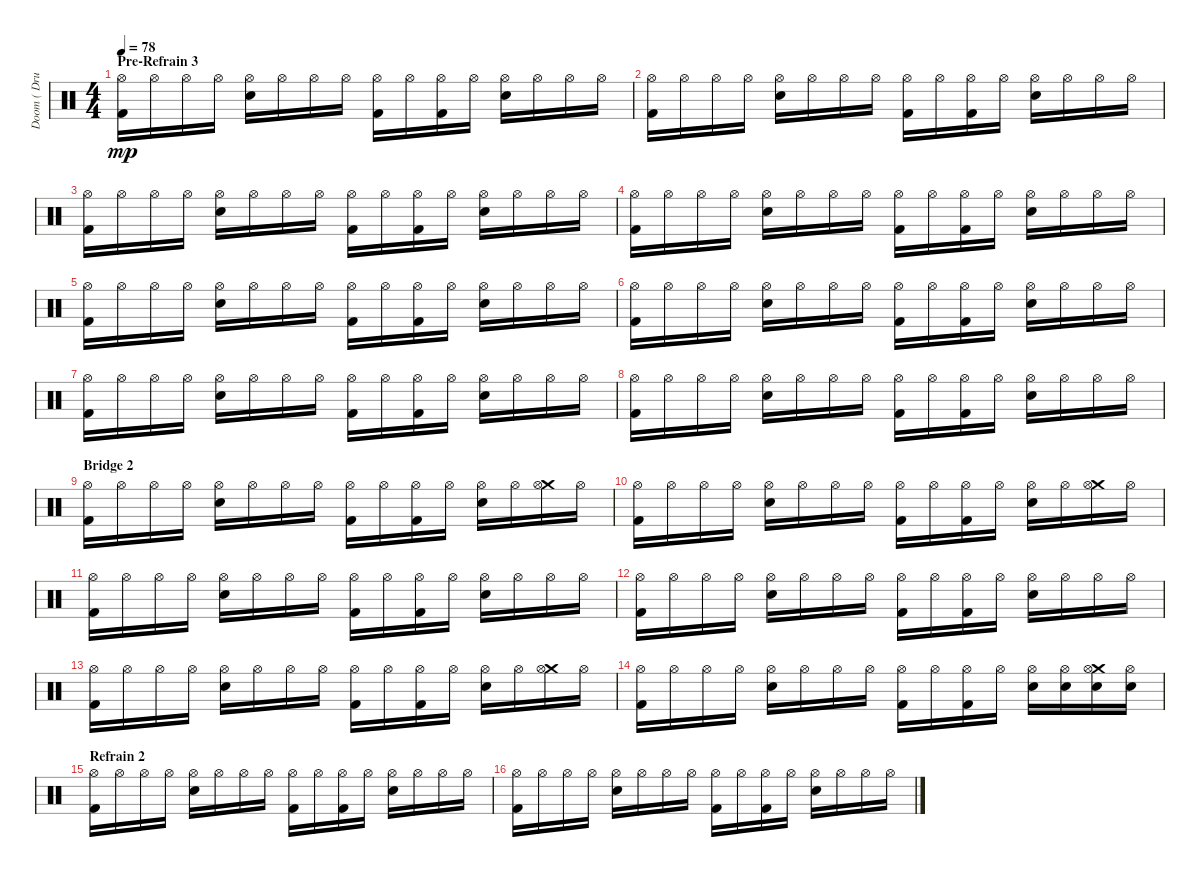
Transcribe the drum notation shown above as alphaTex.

\track ("Doom ( Drums )" "Doom ( Dru") {instrument percussion}
\staff {score}
\articulation defaults
\ts (4 4)
\section ("" "Pre-Refrain 3")
\tempo 78
\clef neutral
\ks c
("Kick (hit) 2" "Hi-Hat (open)").16{dy mp} "Hi-Hat (open)".16 "Hi-Hat (open)".16 "Hi-Hat (open)".16 ("Electric Snare (hit)" "Hi-Hat (open)").16 "Hi-Hat (open)".16 "Hi-Hat (open)".16 "Hi-Hat (open)".16 ("Kick (hit) 2" "Hi-Hat (open)").16 "Hi-Hat (open)".16 ("Kick (hit) 2" "Hi-Hat (open)").16 "Hi-Hat (open)".16 ("Electric Snare (hit)" "Hi-Hat (open)").16 "Hi-Hat (open)".16 "Hi-Hat (open)".16 "Hi-Hat (open)".16 |
("Kick (hit) 2" "Hi-Hat (open)").16 "Hi-Hat (open)".16 "Hi-Hat (open)".16 "Hi-Hat (open)".16 ("Electric Snare (hit)" "Hi-Hat (open)").16 "Hi-Hat (open)".16 "Hi-Hat (open)".16 "Hi-Hat (open)".16 ("Kick (hit) 2" "Hi-Hat (open)").16 "Hi-Hat (open)".16 ("Kick (hit) 2" "Hi-Hat (open)").16 "Hi-Hat (open)".16 ("Electric Snare (hit)" "Hi-Hat (open)").16 "Hi-Hat (open)".16 "Hi-Hat (open)".16 "Hi-Hat (open)".16 |
("Kick (hit) 2" "Hi-Hat (open)").16 "Hi-Hat (open)".16 "Hi-Hat (open)".16 "Hi-Hat (open)".16 ("Electric Snare (hit)" "Hi-Hat (open)").16 "Hi-Hat (open)".16 "Hi-Hat (open)".16 "Hi-Hat (open)".16 ("Kick (hit) 2" "Hi-Hat (open)").16 "Hi-Hat (open)".16 ("Kick (hit) 2" "Hi-Hat (open)").16 "Hi-Hat (open)".16 ("Electric Snare (hit)" "Hi-Hat (open)").16 "Hi-Hat (open)".16 "Hi-Hat (open)".16 "Hi-Hat (open)".16 |
("Kick (hit) 2" "Hi-Hat (open)").16 "Hi-Hat (open)".16 "Hi-Hat (open)".16 "Hi-Hat (open)".16 ("Electric Snare (hit)" "Hi-Hat (open)").16 "Hi-Hat (open)".16 "Hi-Hat (open)".16 "Hi-Hat (open)".16 ("Kick (hit) 2" "Hi-Hat (open)").16 "Hi-Hat (open)".16 ("Kick (hit) 2" "Hi-Hat (open)").16 "Hi-Hat (open)".16 ("Electric Snare (hit)" "Hi-Hat (open)").16 "Hi-Hat (open)".16 "Hi-Hat (open)".16 "Hi-Hat (open)".16 |
("Kick (hit) 2" "Hi-Hat (open)").16 "Hi-Hat (open)".16 "Hi-Hat (open)".16 "Hi-Hat (open)".16 ("Electric Snare (hit)" "Hi-Hat (open)").16 "Hi-Hat (open)".16 "Hi-Hat (open)".16 "Hi-Hat (open)".16 ("Kick (hit) 2" "Hi-Hat (open)").16 "Hi-Hat (open)".16 ("Kick (hit) 2" "Hi-Hat (open)").16 "Hi-Hat (open)".16 ("Electric Snare (hit)" "Hi-Hat (open)").16 "Hi-Hat (open)".16 "Hi-Hat (open)".16 "Hi-Hat (open)".16 |
("Kick (hit) 2" "Hi-Hat (open)").16 "Hi-Hat (open)".16 "Hi-Hat (open)".16 "Hi-Hat (open)".16 ("Electric Snare (hit)" "Hi-Hat (open)").16 "Hi-Hat (open)".16 "Hi-Hat (open)".16 "Hi-Hat (open)".16 ("Kick (hit) 2" "Hi-Hat (open)").16 "Hi-Hat (open)".16 ("Kick (hit) 2" "Hi-Hat (open)").16 "Hi-Hat (open)".16 ("Electric Snare (hit)" "Hi-Hat (open)").16 "Hi-Hat (open)".16 "Hi-Hat (open)".16 "Hi-Hat (open)".16 |
("Kick (hit) 2" "Hi-Hat (open)").16 "Hi-Hat (open)".16 "Hi-Hat (open)".16 "Hi-Hat (open)".16 ("Electric Snare (hit)" "Hi-Hat (open)").16 "Hi-Hat (open)".16 "Hi-Hat (open)".16 "Hi-Hat (open)".16 ("Kick (hit) 2" "Hi-Hat (open)").16 "Hi-Hat (open)".16 ("Kick (hit) 2" "Hi-Hat (open)").16 "Hi-Hat (open)".16 ("Electric Snare (hit)" "Hi-Hat (open)").16 "Hi-Hat (open)".16 "Hi-Hat (open)".16 "Hi-Hat (open)".16 |
("Kick (hit) 2" "Hi-Hat (open)").16 "Hi-Hat (open)".16 "Hi-Hat (open)".16 "Hi-Hat (open)".16 ("Electric Snare (hit)" "Hi-Hat (open)").16 "Hi-Hat (open)".16 "Hi-Hat (open)".16 "Hi-Hat (open)".16 ("Kick (hit) 2" "Hi-Hat (open)").16 "Hi-Hat (open)".16 ("Kick (hit) 2" "Hi-Hat (open)").16 "Hi-Hat (open)".16 ("Electric Snare (hit)" "Hi-Hat (open)").16 "Hi-Hat (open)".16 "Hi-Hat (open)".16 "Hi-Hat (open)".16 |
\section ("" "Bridge 2")
("Kick (hit) 2" "Hi-Hat (open)").16 "Hi-Hat (open)".16 "Hi-Hat (open)".16 "Hi-Hat (open)".16 ("Electric Snare (hit)" "Hi-Hat (open)").16 "Hi-Hat (open)".16 "Hi-Hat (open)".16 "Hi-Hat (open)".16 ("Kick (hit) 2" "Hi-Hat (open)").16 "Hi-Hat (open)".16 ("Kick (hit) 2" "Hi-Hat (open)").16 "Hi-Hat (open)".16 ("Electric Snare (hit)" "Hi-Hat (open)").16 "Hi-Hat (open)".16 ("Crash medium (hit)" "Hi-Hat (open)").16 "Hi-Hat (open)".16 |
("Kick (hit) 2" "Hi-Hat (open)").16 "Hi-Hat (open)".16 "Hi-Hat (open)".16 "Hi-Hat (open)".16 ("Electric Snare (hit)" "Hi-Hat (open)").16 "Hi-Hat (open)".16 "Hi-Hat (open)".16 "Hi-Hat (open)".16 ("Kick (hit) 2" "Hi-Hat (open)").16 "Hi-Hat (open)".16 ("Kick (hit) 2" "Hi-Hat (open)").16 "Hi-Hat (open)".16 ("Electric Snare (hit)" "Hi-Hat (open)").16 "Hi-Hat (open)".16 ("Crash medium (hit)" "Hi-Hat (open)").16 "Hi-Hat (open)".16 |
("Kick (hit) 2" "Hi-Hat (open)").16 "Hi-Hat (open)".16 "Hi-Hat (open)".16 "Hi-Hat (open)".16 ("Electric Snare (hit)" "Hi-Hat (open)").16 "Hi-Hat (open)".16 "Hi-Hat (open)".16 "Hi-Hat (open)".16 ("Kick (hit) 2" "Hi-Hat (open)").16 "Hi-Hat (open)".16 ("Kick (hit) 2" "Hi-Hat (open)").16 "Hi-Hat (open)".16 ("Electric Snare (hit)" "Hi-Hat (open)").16 "Hi-Hat (open)".16 "Hi-Hat (open)".16 "Hi-Hat (open)".16 |
("Kick (hit) 2" "Hi-Hat (open)").16 "Hi-Hat (open)".16 "Hi-Hat (open)".16 "Hi-Hat (open)".16 ("Electric Snare (hit)" "Hi-Hat (open)").16 "Hi-Hat (open)".16 "Hi-Hat (open)".16 "Hi-Hat (open)".16 ("Kick (hit) 2" "Hi-Hat (open)").16 "Hi-Hat (open)".16 ("Kick (hit) 2" "Hi-Hat (open)").16 "Hi-Hat (open)".16 ("Electric Snare (hit)" "Hi-Hat (open)").16 "Hi-Hat (open)".16 "Hi-Hat (open)".16 "Hi-Hat (open)".16 |
("Kick (hit) 2" "Hi-Hat (open)").16 "Hi-Hat (open)".16 "Hi-Hat (open)".16 "Hi-Hat (open)".16 ("Electric Snare (hit)" "Hi-Hat (open)").16 "Hi-Hat (open)".16 "Hi-Hat (open)".16 "Hi-Hat (open)".16 ("Kick (hit) 2" "Hi-Hat (open)").16 "Hi-Hat (open)".16 ("Kick (hit) 2" "Hi-Hat (open)").16 "Hi-Hat (open)".16 ("Electric Snare (hit)" "Hi-Hat (open)").16 "Hi-Hat (open)".16 ("Crash medium (hit)" "Hi-Hat (open)").16 "Hi-Hat (open)".16 |
("Kick (hit) 2" "Hi-Hat (open)").16 "Hi-Hat (open)".16 "Hi-Hat (open)".16 "Hi-Hat (open)".16 ("Electric Snare (hit)" "Hi-Hat (open)").16 "Hi-Hat (open)".16 "Hi-Hat (open)".16 "Hi-Hat (open)".16 ("Kick (hit) 2" "Hi-Hat (open)").16 "Hi-Hat (open)".16 ("Kick (hit) 2" "Hi-Hat (open)").16 "Hi-Hat (open)".16 ("Electric Snare (hit)" "Hi-Hat (open)").16 ("Electric Snare (hit)" "Hi-Hat (open)").16 ("Electric Snare (hit)" "Crash medium (hit)" "Hi-Hat (open)").16 ("Electric Snare (hit)" "Hi-Hat (open)").16 |
\section ("" "Refrain 2")
("Kick (hit) 2" "Hi-Hat (open)").16 "Hi-Hat (open)".16 "Hi-Hat (open)".16 "Hi-Hat (open)".16 ("Electric Snare (hit)" "Hi-Hat (open)").16 "Hi-Hat (open)".16 "Hi-Hat (open)".16 "Hi-Hat (open)".16 ("Kick (hit) 2" "Hi-Hat (open)").16 "Hi-Hat (open)".16 ("Kick (hit) 2" "Hi-Hat (open)").16 "Hi-Hat (open)".16 ("Electric Snare (hit)" "Hi-Hat (open)").16 "Hi-Hat (open)".16 "Hi-Hat (open)".16 "Hi-Hat (open)".16 |
("Kick (hit) 2" "Hi-Hat (open)").16 "Hi-Hat (open)".16 "Hi-Hat (open)".16 "Hi-Hat (open)".16 ("Electric Snare (hit)" "Hi-Hat (open)").16 "Hi-Hat (open)".16 "Hi-Hat (open)".16 "Hi-Hat (open)".16 ("Kick (hit) 2" "Hi-Hat (open)").16 "Hi-Hat (open)".16 ("Kick (hit) 2" "Hi-Hat (open)").16 "Hi-Hat (open)".16 ("Electric Snare (hit)" "Hi-Hat (open)").16 "Hi-Hat (open)".16 "Hi-Hat (open)".16 "Hi-Hat (open)".16
